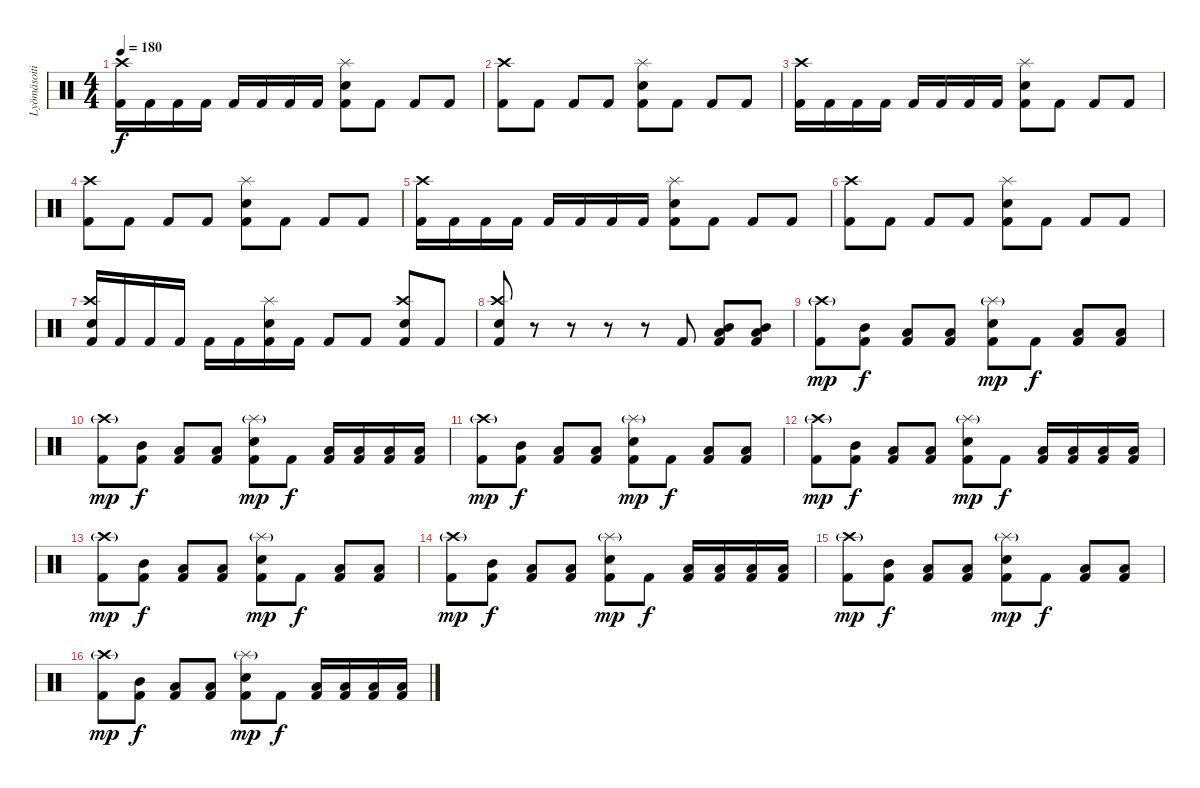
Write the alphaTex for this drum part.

\track ("Lyömäsoitin" "Lyömäsoiti") {instrument percussion}
\staff {score}
\articulation defaults
\ts (4 4)
\tempo 180
\clef neutral
\ks c
("Kick (hit) 2" "Crash high (hit)").16{dy f} "Kick (hit) 2".16 "Kick (hit) 2".16 "Kick (hit) 2".16 "Kick (hit) 2".16 "Kick (hit) 2".16 "Kick (hit) 2".16 "Kick (hit) 2".16 ("Kick (hit) 2" "Electric Snare (hit)" "Splash (hit)").8 "Kick (hit) 2".8 "Kick (hit) 2".8 "Kick (hit) 2".8 |
("Kick (hit) 2" "Crash high (hit)").8 "Kick (hit) 2".8 "Kick (hit) 2".8 "Kick (hit) 2".8 ("Kick (hit) 2" "Electric Snare (hit)" "Splash (hit)").8 "Kick (hit) 2".8 "Kick (hit) 2".8 "Kick (hit) 2".8 |
("Kick (hit) 2" "Crash high (hit)").16 "Kick (hit) 2".16 "Kick (hit) 2".16 "Kick (hit) 2".16 "Kick (hit) 2".16 "Kick (hit) 2".16 "Kick (hit) 2".16 "Kick (hit) 2".16 ("Kick (hit) 2" "Electric Snare (hit)" "Splash (hit)").8 "Kick (hit) 2".8 "Kick (hit) 2".8 "Kick (hit) 2".8 |
("Kick (hit) 2" "Crash high (hit)").8 "Kick (hit) 2".8 "Kick (hit) 2".8 "Kick (hit) 2".8 ("Kick (hit) 2" "Electric Snare (hit)" "Splash (hit)").8 "Kick (hit) 2".8 "Kick (hit) 2".8 "Kick (hit) 2".8 |
("Kick (hit) 2" "Crash high (hit)").16 "Kick (hit) 2".16 "Kick (hit) 2".16 "Kick (hit) 2".16 "Kick (hit) 2".16 "Kick (hit) 2".16 "Kick (hit) 2".16 "Kick (hit) 2".16 ("Kick (hit) 2" "Electric Snare (hit)" "Splash (hit)").8 "Kick (hit) 2".8 "Kick (hit) 2".8 "Kick (hit) 2".8 |
("Kick (hit) 2" "Crash high (hit)").8 "Kick (hit) 2".8 "Kick (hit) 2".8 "Kick (hit) 2".8 ("Kick (hit) 2" "Electric Snare (hit)" "Splash (hit)").8 "Kick (hit) 2".8 "Kick (hit) 2".8 "Kick (hit) 2".8 |
("Kick (hit) 2" "Electric Snare (hit)" "Crash high (hit)").16 "Kick (hit) 2".16 "Kick (hit) 2".16 "Kick (hit) 2".16 "Kick (hit) 2".16 "Kick (hit) 2".16 ("Kick (hit) 2" "Electric Snare (hit)" "Splash (hit)").16 "Kick (hit) 2".16 "Kick (hit) 2".8 "Kick (hit) 2".8 ("Kick (hit) 2" "Electric Snare (hit)" "Crash high (hit)").8 "Kick (hit) 2".8 |
("Kick (hit) 2" "Electric Snare (hit)" "Crash high (hit)").8 r.8 r.8 r.8 r.8 "Kick (hit) 2".8 ("Kick (hit) 2" "Mid Tom (hit)" "Low Tom (hit)").8 ("Kick (hit) 2" "Mid Tom (hit)" "Low Tom (hit)").8 |
("Kick (hit) 2" "Crash high (hit)"{g}).8{dy mp} ("Kick (hit) 2" "Mid Tom (hit)").8{dy f} ("Kick (hit) 2" "Low Tom (hit)").8 ("Kick (hit) 2" "Low Tom (hit)").8 ("Kick (hit) 2" "Electric Snare (hit)" "Splash (hit)"{g}).8{dy mp} "Kick (hit) 2".8{dy f} ("Kick (hit) 2" "Low Tom (hit)").8 ("Kick (hit) 2" "Low Floor Tom (hit)").8 |
("Kick (hit) 2" "Crash high (hit)"{g}).8{dy mp} ("Kick (hit) 2" "Mid Tom (hit)").8{dy f} ("Kick (hit) 2" "Low Tom (hit)").8 ("Kick (hit) 2" "Low Tom (hit)").8 ("Kick (hit) 2" "Electric Snare (hit)" "Splash (hit)"{g}).8{dy mp} "Kick (hit) 2".8{dy f} ("Kick (hit) 2" "Low Tom (hit)").16 ("Kick (hit) 2" "Low Tom (hit)").16 ("Kick (hit) 2" "Low Floor Tom (hit)").16 ("Kick (hit) 2" "Low Floor Tom (hit)").16 |
("Kick (hit) 2" "Crash high (hit)"{g}).8{dy mp} ("Kick (hit) 2" "Mid Tom (hit)").8{dy f} ("Kick (hit) 2" "Low Tom (hit)").8 ("Kick (hit) 2" "Low Tom (hit)").8 ("Kick (hit) 2" "Electric Snare (hit)" "Splash (hit)"{g}).8{dy mp} "Kick (hit) 2".8{dy f} ("Kick (hit) 2" "Low Tom (hit)").8 ("Kick (hit) 2" "Low Floor Tom (hit)").8 |
("Kick (hit) 2" "Crash high (hit)"{g}).8{dy mp} ("Kick (hit) 2" "Mid Tom (hit)").8{dy f} ("Kick (hit) 2" "Low Tom (hit)").8 ("Kick (hit) 2" "Low Tom (hit)").8 ("Kick (hit) 2" "Electric Snare (hit)" "Splash (hit)"{g}).8{dy mp} "Kick (hit) 2".8{dy f} ("Kick (hit) 2" "Low Tom (hit)").16 ("Kick (hit) 2" "Low Tom (hit)").16 ("Kick (hit) 2" "Low Floor Tom (hit)").16 ("Kick (hit) 2" "Low Floor Tom (hit)").16 |
("Kick (hit) 2" "Crash high (hit)"{g}).8{dy mp} ("Kick (hit) 2" "Mid Tom (hit)").8{dy f} ("Kick (hit) 2" "Low Tom (hit)").8 ("Kick (hit) 2" "Low Tom (hit)").8 ("Kick (hit) 2" "Electric Snare (hit)" "Splash (hit)"{g}).8{dy mp} "Kick (hit) 2".8{dy f} ("Kick (hit) 2" "Low Tom (hit)").8 ("Kick (hit) 2" "Low Floor Tom (hit)").8 |
("Kick (hit) 2" "Crash high (hit)"{g}).8{dy mp} ("Kick (hit) 2" "Mid Tom (hit)").8{dy f} ("Kick (hit) 2" "Low Tom (hit)").8 ("Kick (hit) 2" "Low Tom (hit)").8 ("Kick (hit) 2" "Electric Snare (hit)" "Splash (hit)"{g}).8{dy mp} "Kick (hit) 2".8{dy f} ("Kick (hit) 2" "Low Tom (hit)").16 ("Kick (hit) 2" "Low Tom (hit)").16 ("Kick (hit) 2" "Low Floor Tom (hit)").16 ("Kick (hit) 2" "Low Floor Tom (hit)").16 |
("Kick (hit) 2" "Crash high (hit)"{g}).8{dy mp} ("Kick (hit) 2" "Mid Tom (hit)").8{dy f} ("Kick (hit) 2" "Low Tom (hit)").8 ("Kick (hit) 2" "Low Tom (hit)").8 ("Kick (hit) 2" "Electric Snare (hit)" "Splash (hit)"{g}).8{dy mp} "Kick (hit) 2".8{dy f} ("Kick (hit) 2" "Low Tom (hit)").8 ("Kick (hit) 2" "Low Floor Tom (hit)").8 |
("Kick (hit) 2" "Crash high (hit)"{g}).8{dy mp} ("Kick (hit) 2" "Mid Tom (hit)").8{dy f} ("Kick (hit) 2" "Low Tom (hit)").8 ("Kick (hit) 2" "Low Tom (hit)").8 ("Kick (hit) 2" "Electric Snare (hit)" "Splash (hit)"{g}).8{dy mp} "Kick (hit) 2".8{dy f} ("Kick (hit) 2" "Low Tom (hit)").16 ("Kick (hit) 2" "Low Tom (hit)").16 ("Kick (hit) 2" "Low Floor Tom (hit)").16 ("Kick (hit) 2" "Low Floor Tom (hit)").16
